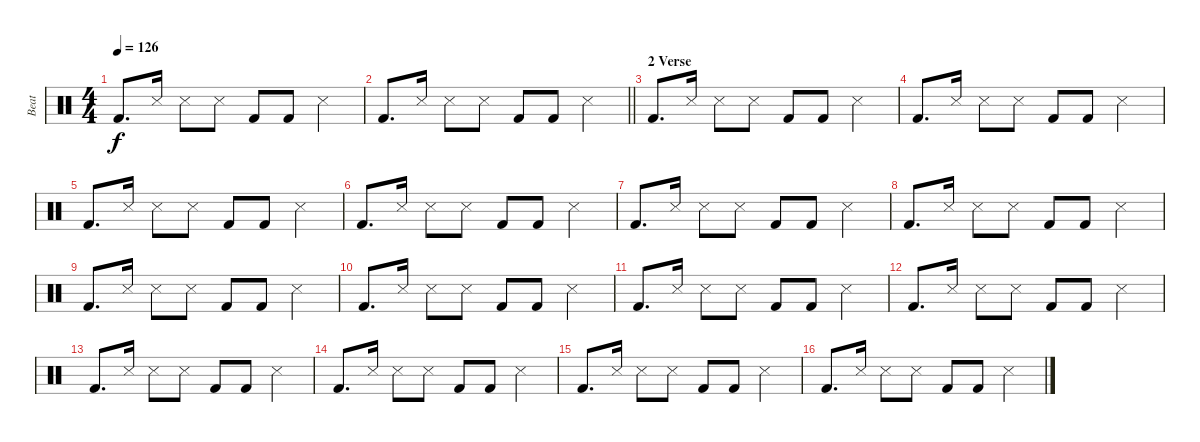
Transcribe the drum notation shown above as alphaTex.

\track ("Beat" "Beat") {instrument percussion}
\staff {score}
\articulation defaults
\ts (4 4)
\tempo 126
\clef neutral
\ks c "Kick (hit) 2".8{d dy f} "Snare (side stick) 3".16 "Snare (side stick) 3".8 "Snare (side stick) 3".8 "Kick (hit) 2".8 "Kick (hit) 2".8 "Snare (side stick) 3".4
|
\barLineRight lightlight "Kick (hit) 2".8{d} "Snare (side stick) 3".16 "Snare (side stick) 3".8 "Snare (side stick) 3".8 "Kick (hit) 2".8 "Kick (hit) 2".8 "Snare (side stick) 3".4
|
\section ("" "2 Verse")
"Kick (hit) 2".8{d} "Snare (side stick) 3".16 "Snare (side stick) 3".8 "Snare (side stick) 3".8 "Kick (hit) 2".8 "Kick (hit) 2".8 "Snare (side stick) 3".4 |
"Kick (hit) 2".8{d} "Snare (side stick) 3".16 "Snare (side stick) 3".8 "Snare (side stick) 3".8 "Kick (hit) 2".8 "Kick (hit) 2".8 "Snare (side stick) 3".4 |
"Kick (hit) 2".8{d} "Snare (side stick) 3".16 "Snare (side stick) 3".8 "Snare (side stick) 3".8 "Kick (hit) 2".8 "Kick (hit) 2".8 "Snare (side stick) 3".4 |
"Kick (hit) 2".8{d} "Snare (side stick) 3".16 "Snare (side stick) 3".8 "Snare (side stick) 3".8 "Kick (hit) 2".8 "Kick (hit) 2".8 "Snare (side stick) 3".4 |
"Kick (hit) 2".8{d} "Snare (side stick) 3".16 "Snare (side stick) 3".8 "Snare (side stick) 3".8 "Kick (hit) 2".8 "Kick (hit) 2".8 "Snare (side stick) 3".4 |
"Kick (hit) 2".8{d} "Snare (side stick) 3".16 "Snare (side stick) 3".8 "Snare (side stick) 3".8 "Kick (hit) 2".8 "Kick (hit) 2".8 "Snare (side stick) 3".4 |
"Kick (hit) 2".8{d} "Snare (side stick) 3".16 "Snare (side stick) 3".8 "Snare (side stick) 3".8 "Kick (hit) 2".8 "Kick (hit) 2".8 "Snare (side stick) 3".4 |
"Kick (hit) 2".8{d} "Snare (side stick) 3".16 "Snare (side stick) 3".8 "Snare (side stick) 3".8 "Kick (hit) 2".8 "Kick (hit) 2".8 "Snare (side stick) 3".4 |
"Kick (hit) 2".8{d} "Snare (side stick) 3".16 "Snare (side stick) 3".8 "Snare (side stick) 3".8 "Kick (hit) 2".8 "Kick (hit) 2".8 "Snare (side stick) 3".4 |
"Kick (hit) 2".8{d} "Snare (side stick) 3".16 "Snare (side stick) 3".8 "Snare (side stick) 3".8 "Kick (hit) 2".8 "Kick (hit) 2".8 "Snare (side stick) 3".4 |
"Kick (hit) 2".8{d} "Snare (side stick) 3".16 "Snare (side stick) 3".8 "Snare (side stick) 3".8 "Kick (hit) 2".8 "Kick (hit) 2".8 "Snare (side stick) 3".4 |
"Kick (hit) 2".8{d} "Snare (side stick) 3".16 "Snare (side stick) 3".8 "Snare (side stick) 3".8 "Kick (hit) 2".8 "Kick (hit) 2".8 "Snare (side stick) 3".4 |
"Kick (hit) 2".8{d} "Snare (side stick) 3".16 "Snare (side stick) 3".8 "Snare (side stick) 3".8 "Kick (hit) 2".8 "Kick (hit) 2".8 "Snare (side stick) 3".4 |
"Kick (hit) 2".8{d} "Snare (side stick) 3".16 "Snare (side stick) 3".8 "Snare (side stick) 3".8 "Kick (hit) 2".8 "Kick (hit) 2".8 "Snare (side stick) 3".4
